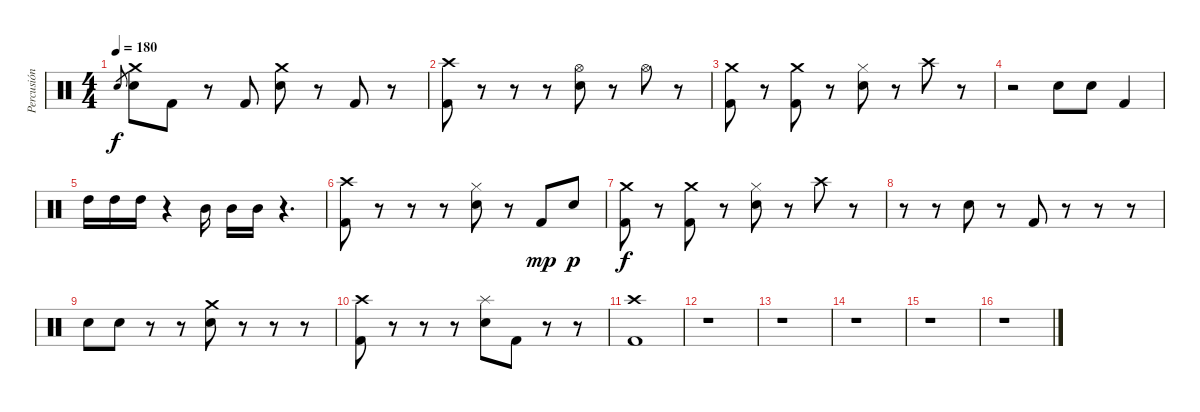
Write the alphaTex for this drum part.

\track ("Percusión" "Percusión") {instrument percussion}
\staff {score}
\articulation defaults
\ts (4 4)
\tempo 180
\clef neutral
\ks c "Snare (hit) 2".8{gr dy f}
("Crash medium (hit)" "Snare (hit) 2").8 "Kick (hit) 2".8 r.8 "Kick (hit) 2".8 ("Crash medium (hit)" "Snare (hit) 2").8 r.8 "Kick (hit) 2".8 r.8 |
("Crash high (hit)" "Kick (hit) 2").8 r.8 r.8 r.8 ("Hi-Hat (open)" "Snare (hit) 2").8 r.8 "Hi-Hat (open)".8 r.8 |
("Crash medium (hit)" "Kick (hit) 2").8 r.8 ("Crash medium (hit)" "Kick (hit) 2").8 r.8 ("Hi-Hat (closed)" "Snare (hit) 2").8 r.8 "Crash high (hit)".8 r.8 |
r.2 "Snare (hit) 2".8 "Snare (hit) 2".8 "Kick (hit) 2".4 |
"High Tom (hit)".16 "High Tom (hit)".16 "High Tom (hit)".16 r.4 "Mid Tom (hit)".16 "Mid Tom (hit)".16 "Mid Tom (hit)".16 r.4{d} |
("Crash high (hit)" "Kick (hit) 2").8 r.8 r.8 r.8 ("Hi-Hat (closed)" "Snare (hit) 2").8 r.8 "Kick (hit) 2".8{dy mp} "Snare (hit) 2".8{dy p} |
("Crash medium (hit)" "Kick (hit) 2").8{dy f} r.8 ("Crash medium (hit)" "Kick (hit) 2").8 r.8 ("Hi-Hat (closed)" "Snare (hit) 2").8 r.8 "Crash high (hit)".8 r.8 |
r.8 r.8 "Snare (hit) 2".8 r.8 "Kick (hit) 2".8 r.8 r.8 r.8 |
"Snare (hit) 2".8 "Snare (hit) 2".8 r.8 r.8 ("Crash medium (hit)" "Snare (hit) 2").8 r.8 r.8 r.8 |
("Crash high (hit)" "Kick (hit) 2").8 r.8 r.8 r.8 ("Splash (hit)" "Snare (hit) 2").8 "Kick (hit) 2".8 r.8 r.8 |
("Crash high (hit)" "Kick (hit) 2").1 |
r.1 |
r.1 |
r.1 |
r.1 |
r.1
